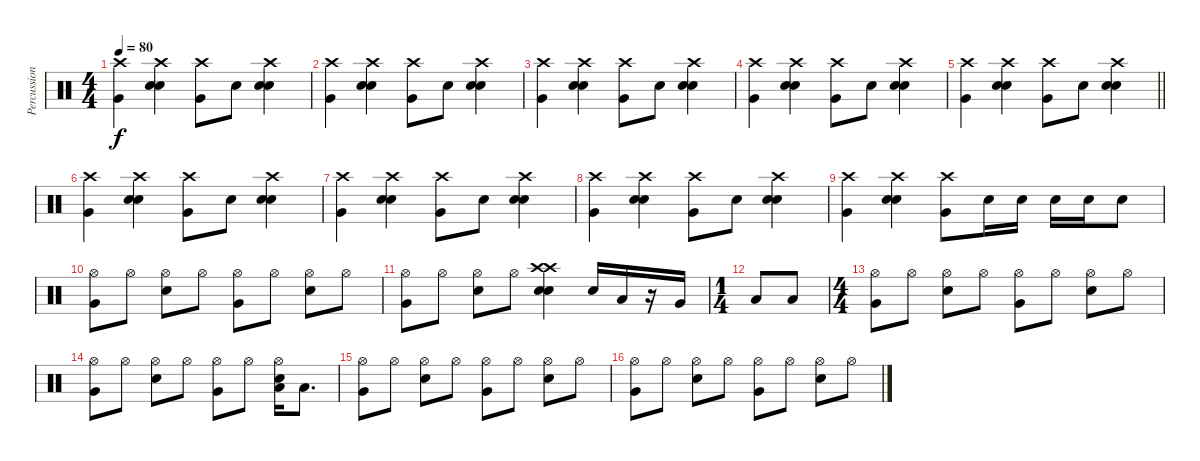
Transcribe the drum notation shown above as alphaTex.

\track ("Percussion" "Percussion") {instrument percussion}
\staff {score}
\articulation defaults
\ts (4 4)
\tempo 80
\clef neutral
\ks c
("Crash high (hit)" "Very Low Tom (hit)").4{dy f} ("Crash high (hit)" "Snare (hit) 2" "Snare (hit) 2").4 ("Crash high (hit)" "Very Low Tom (hit)").8 "Snare (hit) 2".8 ("Crash high (hit)" "Snare (hit) 2" "Snare (hit) 2").4 |
("Crash high (hit)" "Very Low Tom (hit)").4 ("Crash high (hit)" "Snare (hit) 2" "Snare (hit) 2").4 ("Crash high (hit)" "Very Low Tom (hit)").8 "Snare (hit) 2".8 ("Crash high (hit)" "Snare (hit) 2" "Snare (hit) 2").4 |
("Crash high (hit)" "Very Low Tom (hit)").4 ("Crash high (hit)" "Snare (hit) 2" "Snare (hit) 2").4 ("Crash high (hit)" "Very Low Tom (hit)").8 "Snare (hit) 2".8 ("Crash high (hit)" "Snare (hit) 2" "Snare (hit) 2").4 |
("Crash high (hit)" "Very Low Tom (hit)").4 ("Crash high (hit)" "Snare (hit) 2" "Snare (hit) 2").4 ("Crash high (hit)" "Very Low Tom (hit)").8 "Snare (hit) 2".8 ("Crash high (hit)" "Snare (hit) 2" "Snare (hit) 2").4 |
\barLineRight lightlight
("Crash high (hit)" "Very Low Tom (hit)").4 ("Crash high (hit)" "Snare (hit) 2" "Snare (hit) 2").4 ("Crash high (hit)" "Very Low Tom (hit)").8 "Snare (hit) 2".8 ("Crash high (hit)" "Snare (hit) 2" "Snare (hit) 2").4 |
("Crash high (hit)" "Very Low Tom (hit)").4 ("Crash high (hit)" "Snare (hit) 2" "Snare (hit) 2").4 ("Crash high (hit)" "Very Low Tom (hit)").8 "Snare (hit) 2".8 ("Crash high (hit)" "Snare (hit) 2" "Snare (hit) 2").4 |
("Crash high (hit)" "Very Low Tom (hit)").4 ("Crash high (hit)" "Snare (hit) 2" "Snare (hit) 2").4 ("Crash high (hit)" "Very Low Tom (hit)").8 "Snare (hit) 2".8 ("Crash high (hit)" "Snare (hit) 2" "Snare (hit) 2").4 |
("Crash high (hit)" "Very Low Tom (hit)").4 ("Crash high (hit)" "Snare (hit) 2" "Snare (hit) 2").4 ("Crash high (hit)" "Very Low Tom (hit)").8 "Snare (hit) 2".8 ("Crash high (hit)" "Snare (hit) 2" "Snare (hit) 2").4 |
("Crash high (hit)" "Very Low Tom (hit)").4 ("Crash high (hit)" "Snare (hit) 2" "Snare (hit) 2").4 ("Crash high (hit)" "Very Low Tom (hit)").8 "Snare (hit) 2".16 "Snare (hit) 2".16 "Snare (hit) 2".16 "Snare (hit) 2".16 "Snare (hit) 2".8 |
("Hi-Hat (open)" "Very Low Tom (hit)").8 "Hi-Hat (open)".8 ("Hi-Hat (open)" "Snare (hit) 2").8 "Hi-Hat (open)".8 ("Hi-Hat (open)" "Very Low Tom (hit)").8 "Hi-Hat (open)".8 ("Hi-Hat (open)" "Snare (hit) 2").8 "Hi-Hat (open)".8 |
("Hi-Hat (open)" "Very Low Tom (hit)").8 "Hi-Hat (open)".8 ("Hi-Hat (open)" "Snare (hit) 2").8 "Hi-Hat (open)".8 ("Crash high (hit)" "Crash high (hit)" "Snare (hit) 2" "Snare (hit) 2").4 "Snare (hit) 2"{tr (38 32)}.16 "Low Tom (hit)".16 r.16 "Very Low Tom (hit)".16 |
\ts (1 4)
"Low Tom (hit)".8 "Low Tom (hit)".8 |
\ts (4 4)
("Hi-Hat (open)" "Very Low Tom (hit)").8 "Hi-Hat (open)".8 ("Hi-Hat (open)" "Snare (hit) 2").8 "Hi-Hat (open)".8 ("Hi-Hat (open)" "Very Low Tom (hit)").8 "Hi-Hat (open)".8 ("Hi-Hat (open)" "Snare (hit) 2").8 "Hi-Hat (open)".8 |
("Hi-Hat (open)" "Very Low Tom (hit)").8 "Hi-Hat (open)".8 ("Hi-Hat (open)" "Snare (hit) 2").8 "Hi-Hat (open)".8 ("Hi-Hat (open)" "Very Low Tom (hit)").8 "Hi-Hat (open)".8 ("Hi-Hat (open)" "Snare (hit) 2" "Low Floor Tom (hit)").16 "Low Floor Tom (hit)".8{d} |
("Hi-Hat (open)" "Very Low Tom (hit)").8 "Hi-Hat (open)".8 ("Hi-Hat (open)" "Snare (hit) 2").8 "Hi-Hat (open)".8 ("Hi-Hat (open)" "Very Low Tom (hit)").8 "Hi-Hat (open)".8 ("Hi-Hat (open)" "Snare (hit) 2").8 "Hi-Hat (open)".8 |
("Hi-Hat (open)" "Very Low Tom (hit)").8 "Hi-Hat (open)".8 ("Hi-Hat (open)" "Snare (hit) 2").8 "Hi-Hat (open)".8 ("Hi-Hat (open)" "Very Low Tom (hit)").8 "Hi-Hat (open)".8 ("Hi-Hat (open)" "Snare (hit) 2").8 "Hi-Hat (open)".8
